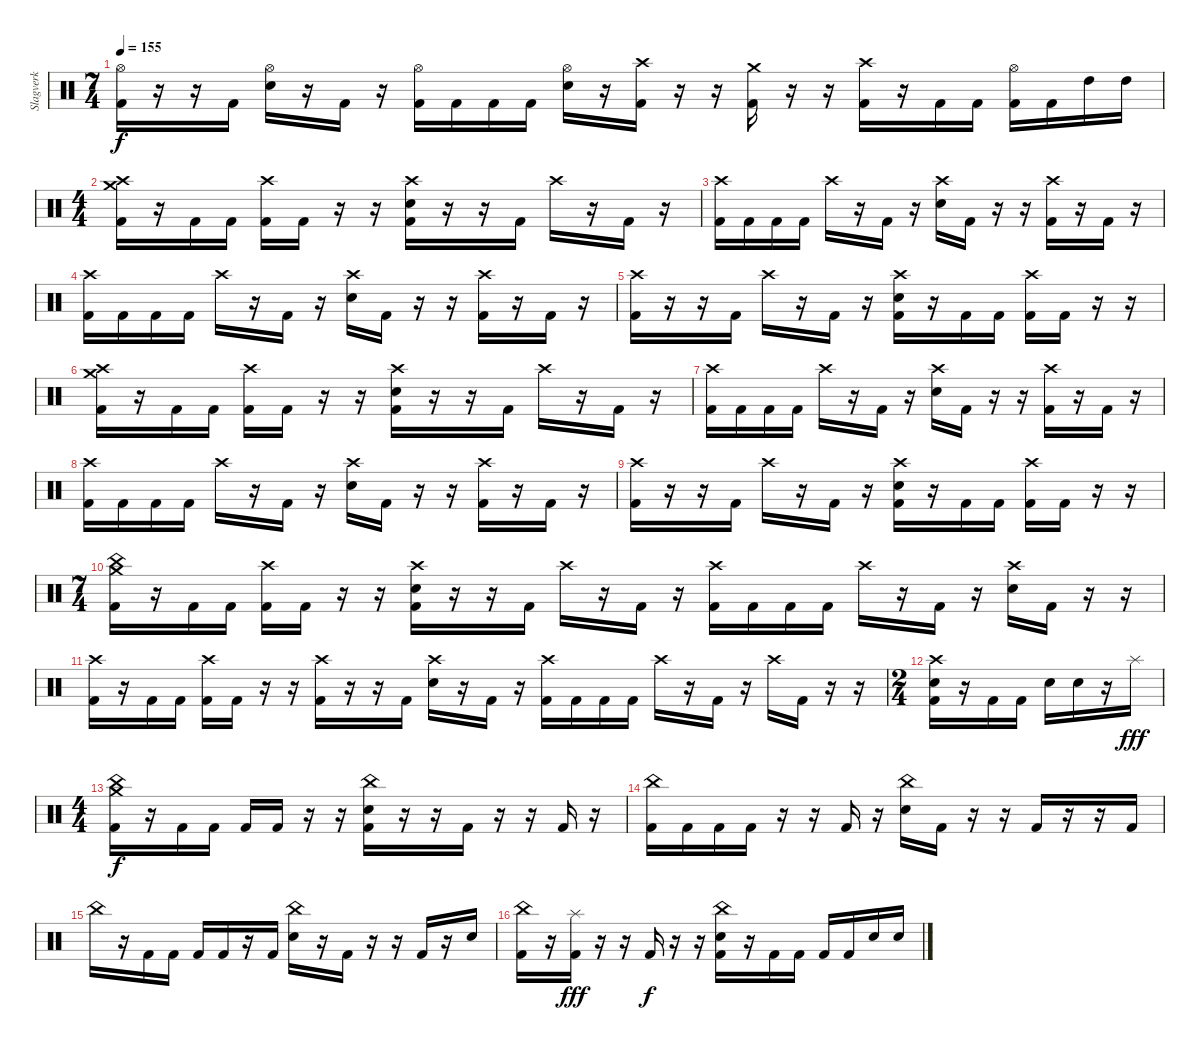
\track ("Slagverk" "Slagverk") {instrument percussion}
\staff {score}
\articulation defaults
\ts (7 4)
\tempo 155
\clef neutral
\ks c
("Kick (hit) 2" "Hi-Hat (open)").16{dy f} r.16 r.16 "Kick (hit) 2".16 ("Electric Snare (hit)" "Hi-Hat (open)").16 r.16 "Kick (hit) 2".16 r.16 ("Kick (hit) 2" "Hi-Hat (open)").16 "Kick (hit) 2".16 "Kick (hit) 2".16 "Kick (hit) 2".16 ("Electric Snare (hit)" "Hi-Hat (open)").16 r.16 ("Kick (hit) 2" "Crash high (hit)").16 r.16 r.16 ("Kick (hit) 2" "Crash medium (hit)").16 r.16 r.16 ("Kick (hit) 2" "Crash high (hit)").16 r.16 "Kick (hit) 2".16 "Kick (hit) 2".16 ("Kick (hit) 2" "Hi-Hat (open)").16 "Kick (hit) 2".16 "High Tom (hit)".16 "High Tom (hit)".16 |
\ts (4 4)
("Kick (hit) 2" "Crash medium (hit)" "Crash high (hit)").16 r.16 "Kick (hit) 2".16 "Kick (hit) 2".16 ("Kick (hit) 2" "Crash high (hit)").16 "Kick (hit) 2".16 r.16 r.16 ("Kick (hit) 2" "Electric Snare (hit)" "Crash high (hit)").16 r.16 r.16 "Kick (hit) 2".16 "Crash high (hit)".16 r.16 "Kick (hit) 2".16 r.16 |
("Kick (hit) 2" "Crash high (hit)").16 "Kick (hit) 2".16 "Kick (hit) 2".16 "Kick (hit) 2".16 "Crash high (hit)".16 r.16 "Kick (hit) 2".16 r.16 ("Electric Snare (hit)" "Crash high (hit)").16 "Kick (hit) 2".16 r.16 r.16 ("Kick (hit) 2" "Crash high (hit)").16 r.16 "Kick (hit) 2".16 r.16 |
("Kick (hit) 2" "Crash high (hit)").16 "Kick (hit) 2".16 "Kick (hit) 2".16 "Kick (hit) 2".16 "Crash high (hit)".16 r.16 "Kick (hit) 2".16 r.16 ("Electric Snare (hit)" "Crash high (hit)").16 "Kick (hit) 2".16 r.16 r.16 ("Kick (hit) 2" "Crash high (hit)").16 r.16 "Kick (hit) 2".16 r.16 |
("Kick (hit) 2" "Crash high (hit)").16 r.16 r.16 "Kick (hit) 2".16 "Crash high (hit)".16 r.16 "Kick (hit) 2".16 r.16 ("Kick (hit) 2" "Electric Snare (hit)" "Crash high (hit)").16 r.16 "Kick (hit) 2".16 "Kick (hit) 2".16 ("Kick (hit) 2" "Crash high (hit)").16 "Kick (hit) 2".16 r.16 r.16 |
("Kick (hit) 2" "Crash medium (hit)" "Crash high (hit)").16 r.16 "Kick (hit) 2".16 "Kick (hit) 2".16 ("Kick (hit) 2" "Crash high (hit)").16 "Kick (hit) 2".16 r.16 r.16 ("Kick (hit) 2" "Electric Snare (hit)" "Crash high (hit)").16 r.16 r.16 "Kick (hit) 2".16 "Crash high (hit)".16 r.16 "Kick (hit) 2".16 r.16 |
("Kick (hit) 2" "Crash high (hit)").16 "Kick (hit) 2".16 "Kick (hit) 2".16 "Kick (hit) 2".16 "Crash high (hit)".16 r.16 "Kick (hit) 2".16 r.16 ("Electric Snare (hit)" "Crash high (hit)").16 "Kick (hit) 2".16 r.16 r.16 ("Kick (hit) 2" "Crash high (hit)").16 r.16 "Kick (hit) 2".16 r.16 |
("Kick (hit) 2" "Crash high (hit)").16 "Kick (hit) 2".16 "Kick (hit) 2".16 "Kick (hit) 2".16 "Crash high (hit)".16 r.16 "Kick (hit) 2".16 r.16 ("Electric Snare (hit)" "Crash high (hit)").16 "Kick (hit) 2".16 r.16 r.16 ("Kick (hit) 2" "Crash high (hit)").16 r.16 "Kick (hit) 2".16 r.16 |
("Kick (hit) 2" "Crash high (hit)").16 r.16 r.16 "Kick (hit) 2".16 "Crash high (hit)".16 r.16 "Kick (hit) 2".16 r.16 ("Kick (hit) 2" "Electric Snare (hit)" "Crash high (hit)").16 r.16 "Kick (hit) 2".16 "Kick (hit) 2".16 ("Kick (hit) 2" "Crash high (hit)").16 "Kick (hit) 2".16 r.16 r.16 |
\ts (7 4)
("Kick (hit) 2" "China (hit)" "Crash medium (hit)").16 r.16 "Kick (hit) 2".16 "Kick (hit) 2".16 ("Kick (hit) 2" "Crash high (hit)").16 "Kick (hit) 2".16 r.16 r.16 ("Kick (hit) 2" "Electric Snare (hit)" "Crash high (hit)").16 r.16 r.16 "Kick (hit) 2".16 "Crash high (hit)".16 r.16 "Kick (hit) 2".16 r.16 ("Kick (hit) 2" "Crash high (hit)").16 "Kick (hit) 2".16 "Kick (hit) 2".16 "Kick (hit) 2".16 "Crash high (hit)".16 r.16 "Kick (hit) 2".16 r.16 ("Electric Snare (hit)" "Crash high (hit)").16 "Kick (hit) 2".16 r.16 r.16 |
("Kick (hit) 2" "Crash high (hit)").16 r.16 "Kick (hit) 2".16 "Kick (hit) 2".16 ("Kick (hit) 2" "Crash high (hit)").16 "Kick (hit) 2".16 r.16 r.16 ("Kick (hit) 2" "Crash high (hit)").16 r.16 r.16 "Kick (hit) 2".16 ("Electric Snare (hit)" "Crash high (hit)").16 r.16 "Kick (hit) 2".16 r.16 ("Kick (hit) 2" "Crash high (hit)").16 "Kick (hit) 2".16 "Kick (hit) 2".16 "Kick (hit) 2".16 "Crash high (hit)".16 r.16 "Kick (hit) 2".16 r.16 "Crash high (hit)".16 "Kick (hit) 2".16 r.16 r.16 |
\ts (2 4)
("Kick (hit) 2" "Electric Snare (hit)" "Crash high (hit)").16 r.16 "Kick (hit) 2".16 "Kick (hit) 2".16 "Electric Snare (hit)".16 "Electric Snare (hit)".16 r.16 "Splash (hit)".16{dy fff} |
\ts (4 4)
("Kick (hit) 2" "China (hit)" "Crash medium (hit)").16{dy f} r.16 "Kick (hit) 2".16 "Kick (hit) 2".16 "Kick (hit) 2".16 "Kick (hit) 2".16 r.16 r.16 ("Kick (hit) 2" "Electric Snare (hit)" "China (hit)").16 r.16 r.16 "Kick (hit) 2".16 r.16 r.16 "Kick (hit) 2".16 r.16 |
("Kick (hit) 2" "China (hit)").16 "Kick (hit) 2".16 "Kick (hit) 2".16 "Kick (hit) 2".16 r.16 r.16 "Kick (hit) 2".16 r.16 ("Electric Snare (hit)" "China (hit)").16 "Kick (hit) 2".16 r.16 r.16 "Kick (hit) 2".16 r.16 r.16 "Kick (hit) 2".16 |
"China (hit)".16 r.16 "Kick (hit) 2".16 "Kick (hit) 2".16 "Kick (hit) 2".16 "Kick (hit) 2".16 r.16 "Kick (hit) 2".16 ("Electric Snare (hit)" "China (hit)").16 r.16 "Kick (hit) 2".16 r.16 r.16 "Kick (hit) 2".16 r.16 "Electric Snare (hit)".16 |
("Kick (hit) 2" "China (hit)").16 r.16 ("Kick (hit) 2" "Splash (hit)").16{dy fff} r.16 r.16 "Kick (hit) 2".16{dy f} r.16 r.16 ("Kick (hit) 2" "Electric Snare (hit)" "China (hit)").16 r.16 "Kick (hit) 2".16 "Kick (hit) 2".16 "Kick (hit) 2".16 "Kick (hit) 2".16 "Electric Snare (hit)".16 "Electric Snare (hit)".16
